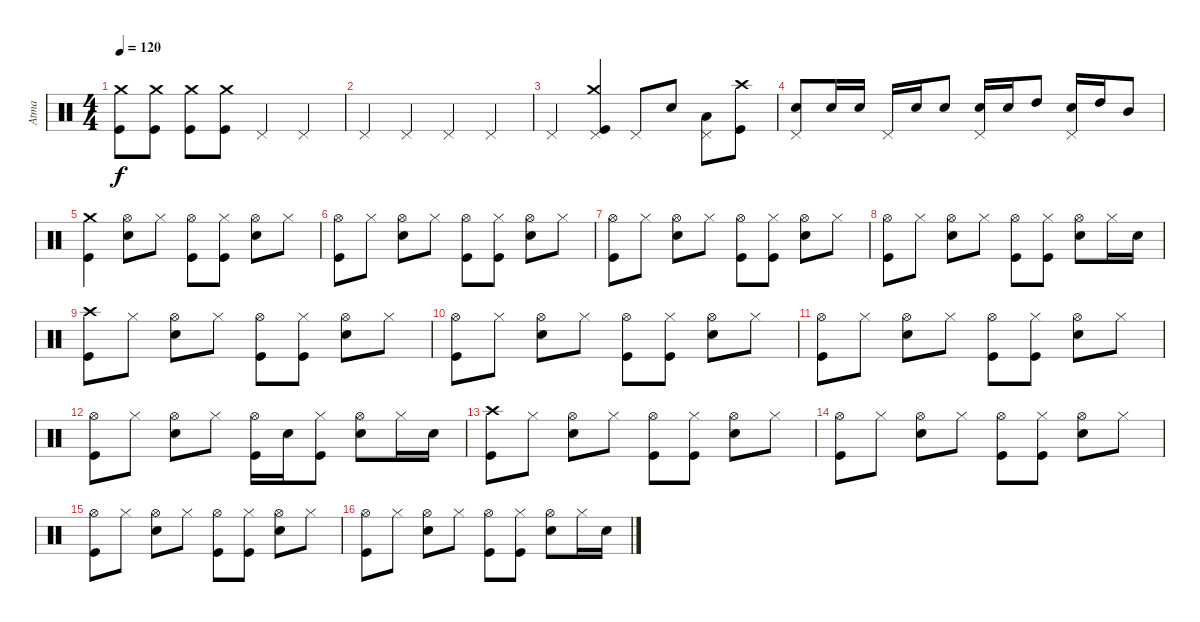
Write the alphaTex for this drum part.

\track ("Atma" "Atma") {instrument percussion}
\staff {score}
\articulation defaults
\ts (4 4)
\tempo 120
\clef neutral
\ks c
("Kick (hit)" "Crash medium (hit)").8{dy f} ("Kick (hit)" "Crash medium (hit)").8 ("Kick (hit)" "Crash medium (hit)").8 ("Kick (hit)" "Crash medium (hit)").8 "Pedal Hi-Hat (hit)".4 "Pedal Hi-Hat (hit)".4 |
"Pedal Hi-Hat (hit)".4 "Pedal Hi-Hat (hit)".4 "Pedal Hi-Hat (hit)".4 "Pedal Hi-Hat (hit)".4 |
"Pedal Hi-Hat (hit)".4 ("Kick (hit)" "Crash medium (hit)" "Pedal Hi-Hat (hit)").4 "Pedal Hi-Hat (hit)".8 "Snare (hit) 2".8 ("Low Tom (hit)" "Pedal Hi-Hat (hit)").8 ("Kick (hit)" "Crash high (hit)").8 |
("Snare (hit) 2" "Pedal Hi-Hat (hit)").8 "Snare (hit) 2".16 "Snare (hit) 2".16 "Pedal Hi-Hat (hit)".16 "Snare (hit) 2".16 "Snare (hit) 2".8 ("Snare (hit) 2" "Pedal Hi-Hat (hit)").16 "Snare (hit) 2".16 "High Tom (hit)".8 ("Snare (hit) 2" "Pedal Hi-Hat (hit)").16 "High Tom (hit)".16 "Mid Tom (hit)".8 |
("Kick (hit)" "Crash medium (hit)").4 ("Snare (hit) 2" "Hi-Hat (open)").8 "Hi-Hat (closed)".8 ("Kick (hit)" "Hi-Hat (open)").8 ("Kick (hit)" "Hi-Hat (closed)").8 ("Snare (hit) 2" "Hi-Hat (open)").8 "Hi-Hat (closed)".8 |
("Kick (hit)" "Hi-Hat (open)").8 "Hi-Hat (closed)".8 ("Snare (hit) 2" "Hi-Hat (open)").8 "Hi-Hat (closed)".8 ("Kick (hit)" "Hi-Hat (open)").8 ("Kick (hit)" "Hi-Hat (closed)").8 ("Snare (hit) 2" "Hi-Hat (open)").8 "Hi-Hat (closed)".8 |
("Kick (hit)" "Hi-Hat (open)").8 "Hi-Hat (closed)".8 ("Snare (hit) 2" "Hi-Hat (open)").8 "Hi-Hat (closed)".8 ("Kick (hit)" "Hi-Hat (open)").8 ("Kick (hit)" "Hi-Hat (closed)").8 ("Snare (hit) 2" "Hi-Hat (open)").8 "Hi-Hat (closed)".8 |
("Kick (hit)" "Hi-Hat (open)").8 "Hi-Hat (closed)".8 ("Snare (hit) 2" "Hi-Hat (open)").8 "Hi-Hat (closed)".8 ("Kick (hit)" "Hi-Hat (open)").8 ("Kick (hit)" "Hi-Hat (closed)").8 ("Snare (hit) 2" "Hi-Hat (open)").8 "Hi-Hat (closed)".16 "Snare (hit) 2".16 |
("Kick (hit)" "Crash high (hit)").8 "Hi-Hat (closed)".8 ("Snare (hit) 2" "Hi-Hat (open)").8 "Hi-Hat (closed)".8 ("Kick (hit)" "Hi-Hat (open)").8 ("Kick (hit)" "Hi-Hat (closed)").8 ("Snare (hit) 2" "Hi-Hat (open)").8 "Hi-Hat (closed)".8 |
("Kick (hit)" "Hi-Hat (open)").8 "Hi-Hat (closed)".8 ("Snare (hit) 2" "Hi-Hat (open)").8 "Hi-Hat (closed)".8 ("Kick (hit)" "Hi-Hat (open)").8 ("Kick (hit)" "Hi-Hat (closed)").8 ("Snare (hit) 2" "Hi-Hat (open)").8 "Hi-Hat (closed)".8 |
("Kick (hit)" "Hi-Hat (open)").8 "Hi-Hat (closed)".8 ("Snare (hit) 2" "Hi-Hat (open)").8 "Hi-Hat (closed)".8 ("Kick (hit)" "Hi-Hat (open)").8 ("Kick (hit)" "Hi-Hat (closed)").8 ("Snare (hit) 2" "Hi-Hat (open)").8 "Hi-Hat (closed)".8 |
("Kick (hit)" "Hi-Hat (open)").8 "Hi-Hat (closed)".8 ("Snare (hit) 2" "Hi-Hat (open)").8 "Hi-Hat (closed)".8 ("Kick (hit)" "Hi-Hat (open)").16 "Snare (hit) 2".16 ("Kick (hit)" "Hi-Hat (closed)").8 ("Snare (hit) 2" "Hi-Hat (open)").8 "Hi-Hat (closed)".16 "Snare (hit) 2".16 |
("Kick (hit)" "Crash high (hit)").8 "Hi-Hat (closed)".8 ("Snare (hit) 2" "Hi-Hat (open)").8 "Hi-Hat (closed)".8 ("Kick (hit)" "Hi-Hat (open)").8 ("Kick (hit)" "Hi-Hat (closed)").8 ("Snare (hit) 2" "Hi-Hat (open)").8 "Hi-Hat (closed)".8 |
("Kick (hit)" "Hi-Hat (open)").8 "Hi-Hat (closed)".8 ("Snare (hit) 2" "Hi-Hat (open)").8 "Hi-Hat (closed)".8 ("Kick (hit)" "Hi-Hat (open)").8 ("Kick (hit)" "Hi-Hat (closed)").8 ("Snare (hit) 2" "Hi-Hat (open)").8 "Hi-Hat (closed)".8 |
("Kick (hit)" "Hi-Hat (open)").8 "Hi-Hat (closed)".8 ("Snare (hit) 2" "Hi-Hat (open)").8 "Hi-Hat (closed)".8 ("Kick (hit)" "Hi-Hat (open)").8 ("Kick (hit)" "Hi-Hat (closed)").8 ("Snare (hit) 2" "Hi-Hat (open)").8 "Hi-Hat (closed)".8 |
("Kick (hit)" "Hi-Hat (open)").8 "Hi-Hat (closed)".8 ("Snare (hit) 2" "Hi-Hat (open)").8 "Hi-Hat (closed)".8 ("Kick (hit)" "Hi-Hat (open)").8 ("Kick (hit)" "Hi-Hat (closed)").8 ("Snare (hit) 2" "Hi-Hat (open)").8 "Hi-Hat (closed)".16 "Snare (hit) 2".16
